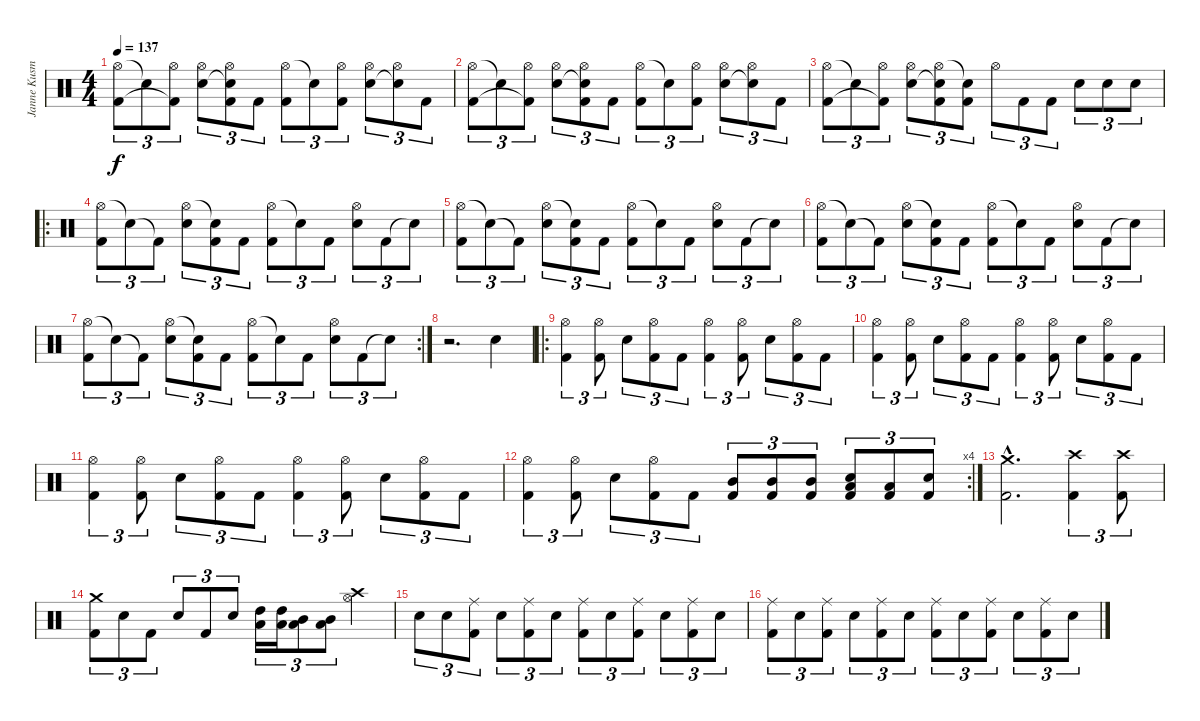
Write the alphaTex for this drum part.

\track ("Janne Kusmin" "Janne Kusm") {instrument percussion}
\staff {score}
\articulation defaults
\ts (4 4)
\tempo 137
\clef neutral
\ks c
("Hi-Hat (open)" "Kick (hit) 2").8{tu (3 2) dy f} "Snare (hit)"{t}.8{tu (3 2)} ("Hi-Hat (open)" "Kick (hit) 2"{t}).8{tu (3 2)} ("Hi-Hat (open)" "Electric Snare (hit)").8{tu (3 2)} ("Hi-Hat (open)" "Snare (hit)"{t} "Kick (hit) 2").8{tu (3 2)} "Kick (hit) 2".8{tu (3 2)} ("Hi-Hat (open)" "Kick (hit) 2").8{tu (3 2)} "Snare (hit)"{t}.8{tu (3 2)} ("Hi-Hat (open)" "Kick (hit) 2").8{tu (3 2)} ("Hi-Hat (open)" "Electric Snare (hit)").8{tu (3 2)} ("Hi-Hat (open)" "Snare (hit)"{t}).8{tu (3 2)} "Kick (hit) 2".8{tu (3 2)} |
("Hi-Hat (open)" "Kick (hit) 2").8{tu (3 2)} "Snare (hit)"{t}.8{tu (3 2)} ("Hi-Hat (open)" "Kick (hit) 2"{t}).8{tu (3 2)} ("Hi-Hat (open)" "Electric Snare (hit)").8{tu (3 2)} ("Hi-Hat (open)" "Snare (hit)"{t} "Kick (hit) 2").8{tu (3 2)} "Kick (hit) 2".8{tu (3 2)} ("Hi-Hat (open)" "Kick (hit) 2").8{tu (3 2)} "Snare (hit)"{t}.8{tu (3 2)} ("Hi-Hat (open)" "Kick (hit) 2").8{tu (3 2)} ("Hi-Hat (open)" "Electric Snare (hit)").8{tu (3 2)} ("Hi-Hat (open)" "Snare (hit)"{t}).8{tu (3 2)} "Kick (hit) 2".8{tu (3 2)} |
("Hi-Hat (open)" "Kick (hit) 2").8{tu (3 2)} "Snare (hit)"{t}.8{tu (3 2)} ("Hi-Hat (open)" "Kick (hit) 2"{t}).8{tu (3 2)} ("Hi-Hat (open)" "Electric Snare (hit)").8{tu (3 2)} ("Hi-Hat (open)" "Snare (hit)"{t} "Kick (hit) 2").8{tu (3 2)} ("Snare (hit)"{t} "Kick (hit) 2").8{tu (3 2)} "Hi-Hat (open)".8{tu (3 2)} "Kick (hit) 2".8{tu (3 2)} "Kick (hit) 2".8{tu (3 2)} "Electric Snare (hit)".8{tu (3 2)} "Electric Snare (hit)".8{tu (3 2)} "Electric Snare (hit)".8{tu (3 2)} |
\ro
("Hi-Hat (open)" "Kick (hit) 2").8{tu (3 2)} "Snare (hit)"{t}.8{tu (3 2)} "Kick (hit) 2"{t}.8{tu (3 2)} ("Hi-Hat (open)" "Electric Snare (hit)").8{tu (3 2)} ("Snare (hit)"{t} "Kick (hit) 2").8{tu (3 2)} "Kick (hit) 2".8{tu (3 2)} ("Hi-Hat (open)" "Kick (hit) 2").8{tu (3 2)} "Snare (hit)"{t}.8{tu (3 2)} "Kick (hit) 2".8{tu (3 2)} ("Hi-Hat (open)" "Electric Snare (hit)").8{tu (3 2)} "Kick (hit) 2".8{tu (3 2)} "Snare (hit)"{t}.8{tu (3 2)} |
("Hi-Hat (open)" "Kick (hit) 2").8{tu (3 2)} "Snare (hit)"{t}.8{tu (3 2)} "Kick (hit) 2"{t}.8{tu (3 2)} ("Hi-Hat (open)" "Electric Snare (hit)").8{tu (3 2)} ("Snare (hit)"{t} "Kick (hit) 2").8{tu (3 2)} "Kick (hit) 2".8{tu (3 2)} ("Hi-Hat (open)" "Kick (hit) 2").8{tu (3 2)} "Snare (hit)"{t}.8{tu (3 2)} "Kick (hit) 2".8{tu (3 2)} ("Hi-Hat (open)" "Electric Snare (hit)").8{tu (3 2)} "Kick (hit) 2".8{tu (3 2)} "Snare (hit)"{t}.8{tu (3 2)} |
("Hi-Hat (open)" "Kick (hit) 2").8{tu (3 2)} "Snare (hit)"{t}.8{tu (3 2)} "Kick (hit) 2"{t}.8{tu (3 2)} ("Hi-Hat (open)" "Electric Snare (hit)").8{tu (3 2)} ("Snare (hit)"{t} "Kick (hit) 2").8{tu (3 2)} "Kick (hit) 2".8{tu (3 2)} ("Hi-Hat (open)" "Kick (hit) 2").8{tu (3 2)} "Snare (hit)"{t}.8{tu (3 2)} "Kick (hit) 2".8{tu (3 2)} ("Hi-Hat (open)" "Electric Snare (hit)").8{tu (3 2)} "Kick (hit) 2".8{tu (3 2)} "Snare (hit)"{t}.8{tu (3 2)} |
\rc 2
("Hi-Hat (open)" "Kick (hit) 2").8{tu (3 2)} "Snare (hit)"{t}.8{tu (3 2)} "Kick (hit) 2"{t}.8{tu (3 2)} ("Hi-Hat (open)" "Electric Snare (hit)").8{tu (3 2)} ("Snare (hit)"{t} "Kick (hit) 2").8{tu (3 2)} "Kick (hit) 2".8{tu (3 2)} ("Hi-Hat (open)" "Kick (hit) 2").8{tu (3 2)} "Snare (hit)"{t}.8{tu (3 2)} "Kick (hit) 2".8{tu (3 2)} ("Hi-Hat (open)" "Electric Snare (hit)").8{tu (3 2)} "Kick (hit) 2".8{tu (3 2)} "Snare (hit)"{t}.8{tu (3 2)} |
r.2{d} "Electric Snare (hit)".4 |
\ro
("Hi-Hat (open)" "Kick (hit) 2").4{tu (3 2)} ("Hi-Hat (open)" "Kick (hit) 2").8{tu (3 2)} "Electric Snare (hit)".8{tu (3 2)} ("Hi-Hat (open)" "Kick (hit) 2").8{tu (3 2)} "Kick (hit) 2".8{tu (3 2)} ("Hi-Hat (open)" "Kick (hit) 2").4{tu (3 2)} ("Hi-Hat (open)" "Kick (hit) 2").8{tu (3 2)} "Electric Snare (hit)".8{tu (3 2)} ("Hi-Hat (open)" "Kick (hit) 2").8{tu (3 2)} "Kick (hit) 2".8{tu (3 2)} |
("Hi-Hat (open)" "Kick (hit) 2").4{tu (3 2)} ("Hi-Hat (open)" "Kick (hit) 2").8{tu (3 2)} "Electric Snare (hit)".8{tu (3 2)} ("Hi-Hat (open)" "Kick (hit) 2").8{tu (3 2)} "Kick (hit) 2".8{tu (3 2)} ("Hi-Hat (open)" "Kick (hit) 2").4{tu (3 2)} ("Hi-Hat (open)" "Kick (hit) 2").8{tu (3 2)} "Electric Snare (hit)".8{tu (3 2)} ("Hi-Hat (open)" "Kick (hit) 2").8{tu (3 2)} "Kick (hit) 2".8{tu (3 2)} |
("Hi-Hat (open)" "Kick (hit) 2").4{tu (3 2)} ("Hi-Hat (open)" "Kick (hit) 2").8{tu (3 2)} "Electric Snare (hit)".8{tu (3 2)} ("Hi-Hat (open)" "Kick (hit) 2").8{tu (3 2)} "Kick (hit) 2".8{tu (3 2)} ("Hi-Hat (open)" "Kick (hit) 2").4{tu (3 2)} ("Hi-Hat (open)" "Kick (hit) 2").8{tu (3 2)} "Electric Snare (hit)".8{tu (3 2)} ("Hi-Hat (open)" "Kick (hit) 2").8{tu (3 2)} "Kick (hit) 2".8{tu (3 2)} |
\rc 4
("Hi-Hat (open)" "Kick (hit) 2").4{tu (3 2)} ("Hi-Hat (open)" "Kick (hit) 2").8{tu (3 2)} "Electric Snare (hit)".8{tu (3 2)} ("Hi-Hat (open)" "Kick (hit) 2").8{tu (3 2)} "Kick (hit) 2".8{tu (3 2)} ("Mid Tom (hit)" "Kick (hit) 2").8{tu (3 2)} ("Mid Tom (hit)" "Kick (hit) 2").8{tu (3 2)} ("Mid Tom (hit)" "Kick (hit) 2").8{tu (3 2)} ("Low Tom (hit)" "Electric Snare (hit)" "Kick (hit) 2").8{tu (3 2)} ("Low Tom (hit)" "Kick (hit) 2").8{tu (3 2)} ("Electric Snare (hit)" "Kick (hit) 2").8{tu (3 2)} |
("Crash medium (hit)"{hac} "Kick (hit) 2"{hac}).2{d} ("Crash high (hit)" "Kick (hit) 2").4{tu (3 2)} ("Crash high (hit)" "Kick (hit) 2").8{tu (3 2)} |
("Crash medium (hit)" "Kick (hit) 2").8{tu (3 2)} "Electric Snare (hit)".8{tu (3 2)} "Kick (hit) 2".8{tu (3 2)} "Electric Snare (hit)".8{tu (3 2)} "Kick (hit) 2".8{tu (3 2)} "Electric Snare (hit)".8{tu (3 2)} ("High Tom (hit)" "Low Tom (hit)").16{tu (3 2)} ("High Tom (hit)" "Low Tom (hit)").16{tu (3 2)} ("Mid Tom (hit)" "Low Tom (hit)").8{tu (3 2)} ("Mid Tom (hit)" "Low Tom (hit)").8{tu (3 2)} ("Crash high (hit)" "Hi-Hat (open)").4 |
"Electric Snare (hit)".8{tu (3 2)} "Electric Snare (hit)".8{tu (3 2)} ("Ride (middle)" "Kick (hit) 2").8{tu (3 2)} "Electric Snare (hit)".8{tu (3 2)} ("Ride (middle)" "Kick (hit) 2").8{tu (3 2)} "Electric Snare (hit)".8{tu (3 2)} ("Ride (middle)" "Kick (hit) 2").8{tu (3 2)} "Electric Snare (hit)".8{tu (3 2)} ("Ride (middle)" "Kick (hit) 2").8{tu (3 2)} "Electric Snare (hit)".8{tu (3 2)} ("Ride (middle)" "Kick (hit) 2").8{tu (3 2)} "Electric Snare (hit)".8{tu (3 2)} |
("Ride (middle)" "Kick (hit) 2").8{tu (3 2)} "Electric Snare (hit)".8{tu (3 2)} ("Ride (middle)" "Kick (hit) 2").8{tu (3 2)} "Electric Snare (hit)".8{tu (3 2)} ("Ride (middle)" "Kick (hit) 2").8{tu (3 2)} "Electric Snare (hit)".8{tu (3 2)} ("Ride (middle)" "Kick (hit) 2").8{tu (3 2)} "Electric Snare (hit)".8{tu (3 2)} ("Ride (middle)" "Kick (hit) 2").8{tu (3 2)} "Electric Snare (hit)".8{tu (3 2)} ("Ride (middle)" "Kick (hit) 2").8{tu (3 2)} "Electric Snare (hit)".8{tu (3 2)}
